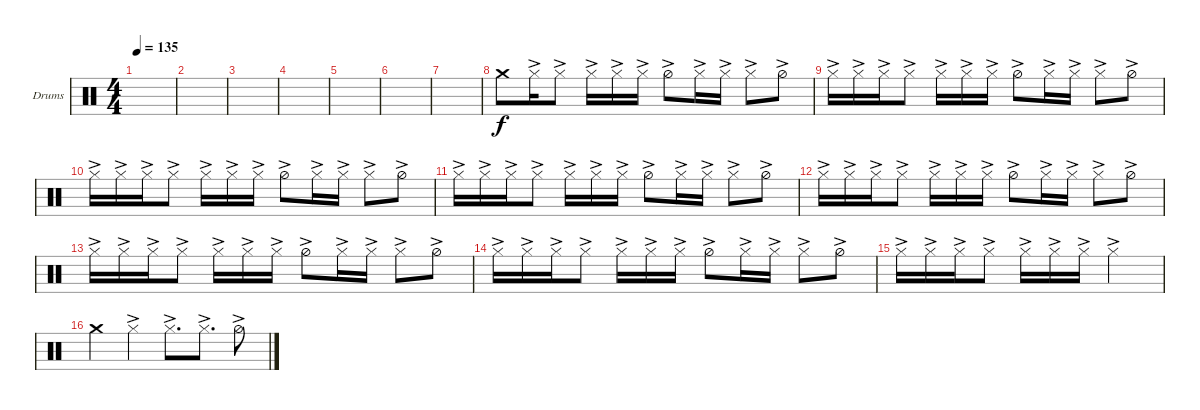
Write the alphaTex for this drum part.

\defaultSystemsLayout 4
\bracketExtendMode groupsimilarinstruments
\firstSystemTrackNameOrientation horizontal
\otherSystemsTrackNameOrientation horizontal
\track ("Helders" "Drums") {instrument percussion}
\staff {score}
\articulation defaults
\ts (4 4)
\tempo 135
\clef neutral
\ks c
|
|
|
|
|
|
|
"Crash medium (hit)".8 "Hi-Hat (closed)"{ac}.16 "Hi-Hat (closed)"{ac}.8 "Hi-Hat (closed)"{ac}.16 "Hi-Hat (closed)"{ac}.16 "Hi-Hat (closed)"{ac}.16 "Hi-Hat (half)"{ac}.8 "Hi-Hat (closed)"{ac}.16 "Hi-Hat (closed)"{ac}.16 "Hi-Hat (closed)"{ac}.8 "Hi-Hat (half)"{ac}.8 |
"Hi-Hat (closed)"{ac}.16 "Hi-Hat (closed)"{ac}.16 "Hi-Hat (closed)"{ac}.16 "Hi-Hat (closed)"{ac}.8 "Hi-Hat (closed)"{ac}.16 "Hi-Hat (closed)"{ac}.16 "Hi-Hat (closed)"{ac}.16 "Hi-Hat (half)"{ac}.8 "Hi-Hat (closed)"{ac}.16 "Hi-Hat (closed)"{ac}.16 "Hi-Hat (closed)"{ac}.8 "Hi-Hat (half)"{ac}.8 |
"Hi-Hat (closed)"{ac}.16 "Hi-Hat (closed)"{ac}.16 "Hi-Hat (closed)"{ac}.16 "Hi-Hat (closed)"{ac}.8 "Hi-Hat (closed)"{ac}.16 "Hi-Hat (closed)"{ac}.16 "Hi-Hat (closed)"{ac}.16 "Hi-Hat (half)"{ac}.8 "Hi-Hat (closed)"{ac}.16 "Hi-Hat (closed)"{ac}.16 "Hi-Hat (closed)"{ac}.8 "Hi-Hat (half)"{ac}.8 |
"Hi-Hat (closed)"{ac}.16 "Hi-Hat (closed)"{ac}.16 "Hi-Hat (closed)"{ac}.16 "Hi-Hat (closed)"{ac}.8 "Hi-Hat (closed)"{ac}.16 "Hi-Hat (closed)"{ac}.16 "Hi-Hat (closed)"{ac}.16 "Hi-Hat (half)"{ac}.8 "Hi-Hat (closed)"{ac}.16 "Hi-Hat (closed)"{ac}.16 "Hi-Hat (closed)"{ac}.8 "Hi-Hat (half)"{ac}.8 |
"Hi-Hat (closed)"{ac}.16 "Hi-Hat (closed)"{ac}.16 "Hi-Hat (closed)"{ac}.16 "Hi-Hat (closed)"{ac}.8 "Hi-Hat (closed)"{ac}.16 "Hi-Hat (closed)"{ac}.16 "Hi-Hat (closed)"{ac}.16 "Hi-Hat (half)"{ac}.8 "Hi-Hat (closed)"{ac}.16 "Hi-Hat (closed)"{ac}.16 "Hi-Hat (closed)"{ac}.8 "Hi-Hat (half)"{ac}.8 |
"Hi-Hat (closed)"{ac}.16 "Hi-Hat (closed)"{ac}.16 "Hi-Hat (closed)"{ac}.16 "Hi-Hat (closed)"{ac}.8 "Hi-Hat (closed)"{ac}.16 "Hi-Hat (closed)"{ac}.16 "Hi-Hat (closed)"{ac}.16 "Hi-Hat (half)"{ac}.8 "Hi-Hat (closed)"{ac}.16 "Hi-Hat (closed)"{ac}.16 "Hi-Hat (closed)"{ac}.8 "Hi-Hat (half)"{ac}.8 |
"Hi-Hat (closed)"{ac}.16 "Hi-Hat (closed)"{ac}.16 "Hi-Hat (closed)"{ac}.16 "Hi-Hat (closed)"{ac}.8 "Hi-Hat (closed)"{ac}.16 "Hi-Hat (closed)"{ac}.16 "Hi-Hat (closed)"{ac}.16 "Hi-Hat (half)"{ac}.8 "Hi-Hat (closed)"{ac}.16 "Hi-Hat (closed)"{ac}.16 "Hi-Hat (closed)"{ac}.8 "Hi-Hat (half)"{ac}.8 |
"Hi-Hat (closed)"{ac}.16 "Hi-Hat (closed)"{ac}.16 "Hi-Hat (closed)"{ac}.16 "Hi-Hat (closed)"{ac}.8 "Hi-Hat (closed)"{ac}.16 "Hi-Hat (closed)"{ac}.16 "Hi-Hat (closed)"{ac}.16 "Hi-Hat (closed)"{ac}.2 |
"Crash medium (hit)".4 "Hi-Hat (closed)"{ac}.4 "Hi-Hat (closed)"{ac}.8{d} "Hi-Hat (closed)"{ac}.8{d} "Hi-Hat (half)"{ac}.8
